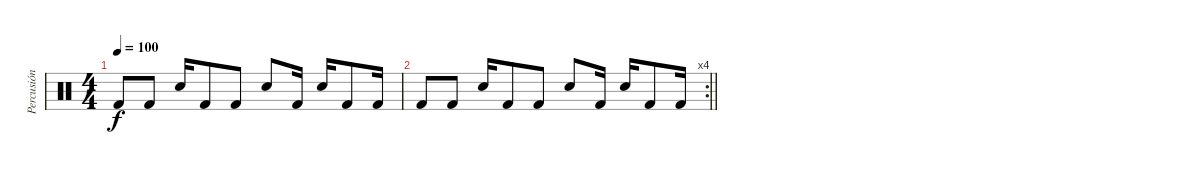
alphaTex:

\track ("Percusión" "Percusión") {instrument percussion}
\staff {score}
\articulation defaults
\ts (4 4)
\tempo 100
\clef neutral
\ks c "Kick (hit) 2".8{dy f} "Kick (hit) 2".8 "Electric Snare (hit)".16 "Kick (hit) 2".8 "Kick (hit) 2".8 "Electric Snare (hit)".8 "Kick (hit) 2".16 "Electric Snare (hit)".16 "Kick (hit) 2".8 "Kick (hit) 2".16
|
\rc 4
\barLineRight lightlight "Kick (hit) 2".8 "Kick (hit) 2".8 "Electric Snare (hit)".16 "Kick (hit) 2".8 "Kick (hit) 2".8 "Electric Snare (hit)".8 "Kick (hit) 2".16 "Electric Snare (hit)".16 "Kick (hit) 2".8 "Kick (hit) 2".16
